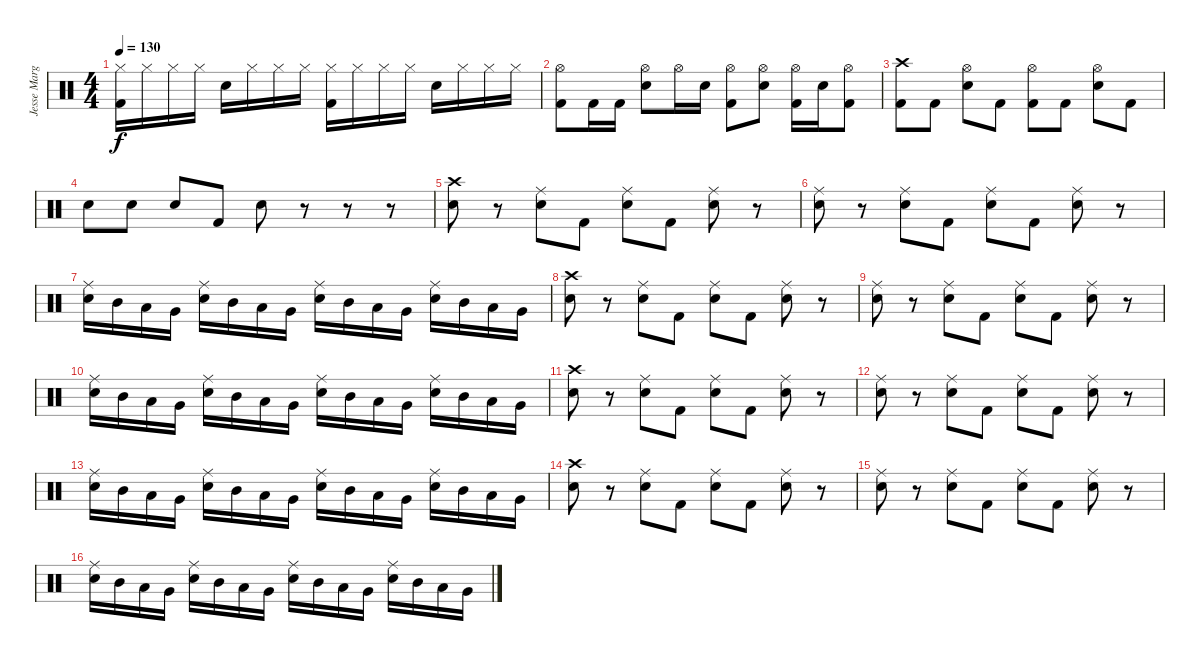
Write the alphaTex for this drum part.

\track ("Jesse Margera" "Jesse Marg") {instrument percussion}
\staff {score}
\articulation defaults
\ts (4 4)
\tempo 130
\clef neutral
\ks c
("Hi-Hat (closed)" "Kick (hit) 2").16{dy f} "Hi-Hat (closed)".16 "Hi-Hat (closed)".16 "Hi-Hat (closed)".16 "Electric Snare (hit)".16 "Hi-Hat (closed)".16 "Hi-Hat (closed)".16 "Hi-Hat (closed)".16 ("Hi-Hat (closed)" "Kick (hit) 2").16 "Hi-Hat (closed)".16 "Hi-Hat (closed)".16 "Hi-Hat (closed)".16 "Electric Snare (hit)".16 "Hi-Hat (closed)".16 "Hi-Hat (closed)".16 "Hi-Hat (closed)".16 |
("Hi-Hat (open)" "Kick (hit) 2").8 "Kick (hit) 2".16 "Kick (hit) 2".16 ("Hi-Hat (open)" "Electric Snare (hit)").8 "Hi-Hat (open)".16 "Electric Snare (hit)".16 ("Hi-Hat (open)" "Kick (hit) 2").8 ("Hi-Hat (open)" "Electric Snare (hit)").8 ("Hi-Hat (open)" "Kick (hit) 2").16 "Electric Snare (hit)".16 ("Hi-Hat (open)" "Kick (hit) 2").8 |
("Crash high (hit)" "Kick (hit) 2").8 "Kick (hit) 2".8 ("Hi-Hat (open)" "Electric Snare (hit)").8 "Kick (hit) 2".8 ("Hi-Hat (open)" "Kick (hit) 2").8 "Kick (hit) 2".8 ("Hi-Hat (open)" "Electric Snare (hit)").8 "Kick (hit) 2".8 |
"Electric Snare (hit)".8 "Electric Snare (hit)".8 "Electric Snare (hit)".8 "Kick (hit) 2".8 "Electric Snare (hit)".8 r.8 r.8 r.8 |
("Crash high (hit)" "Electric Snare (hit)").8 r.8 ("Ride (middle)" "Electric Snare (hit)").8 "Kick (hit) 2".8 ("Ride (middle)" "Electric Snare (hit)").8 "Kick (hit) 2".8 ("Ride (middle)" "Electric Snare (hit)").8 r.8 |
("Ride (middle)" "Electric Snare (hit)").8 r.8 ("Ride (middle)" "Electric Snare (hit)").8 "Kick (hit) 2".8 ("Ride (middle)" "Electric Snare (hit)").8 "Kick (hit) 2".8 ("Ride (middle)" "Electric Snare (hit)").8 r.8 |
("Ride (middle)" "Electric Snare (hit)").16 "Mid Tom (hit)".16 "Low Tom (hit)".16 "Very Low Tom (hit)".16 ("Ride (middle)" "Electric Snare (hit)").16 "Mid Tom (hit)".16 "Low Tom (hit)".16 "Very Low Tom (hit)".16 ("Ride (middle)" "Electric Snare (hit)").16 "Mid Tom (hit)".16 "Low Tom (hit)".16 "Very Low Tom (hit)".16 ("Ride (middle)" "Electric Snare (hit)").16 "Mid Tom (hit)".16 "Low Tom (hit)".16 "Very Low Tom (hit)".16 |
("Crash high (hit)" "Electric Snare (hit)").8 r.8 ("Ride (middle)" "Electric Snare (hit)").8 "Kick (hit) 2".8 ("Ride (middle)" "Electric Snare (hit)").8 "Kick (hit) 2".8 ("Ride (middle)" "Electric Snare (hit)").8 r.8 |
("Ride (middle)" "Electric Snare (hit)").8 r.8 ("Ride (middle)" "Electric Snare (hit)").8 "Kick (hit) 2".8 ("Ride (middle)" "Electric Snare (hit)").8 "Kick (hit) 2".8 ("Ride (middle)" "Electric Snare (hit)").8 r.8 |
("Ride (middle)" "Electric Snare (hit)").16 "Mid Tom (hit)".16 "Low Tom (hit)".16 "Very Low Tom (hit)".16 ("Ride (middle)" "Electric Snare (hit)").16 "Mid Tom (hit)".16 "Low Tom (hit)".16 "Very Low Tom (hit)".16 ("Ride (middle)" "Electric Snare (hit)").16 "Mid Tom (hit)".16 "Low Tom (hit)".16 "Very Low Tom (hit)".16 ("Ride (middle)" "Electric Snare (hit)").16 "Mid Tom (hit)".16 "Low Tom (hit)".16 "Very Low Tom (hit)".16 |
("Crash high (hit)" "Electric Snare (hit)").8 r.8 ("Ride (middle)" "Electric Snare (hit)").8 "Kick (hit) 2".8 ("Ride (middle)" "Electric Snare (hit)").8 "Kick (hit) 2".8 ("Ride (middle)" "Electric Snare (hit)").8 r.8 |
("Ride (middle)" "Electric Snare (hit)").8 r.8 ("Ride (middle)" "Electric Snare (hit)").8 "Kick (hit) 2".8 ("Ride (middle)" "Electric Snare (hit)").8 "Kick (hit) 2".8 ("Ride (middle)" "Electric Snare (hit)").8 r.8 |
("Ride (middle)" "Electric Snare (hit)").16 "Mid Tom (hit)".16 "Low Tom (hit)".16 "Very Low Tom (hit)".16 ("Ride (middle)" "Electric Snare (hit)").16 "Mid Tom (hit)".16 "Low Tom (hit)".16 "Very Low Tom (hit)".16 ("Ride (middle)" "Electric Snare (hit)").16 "Mid Tom (hit)".16 "Low Tom (hit)".16 "Very Low Tom (hit)".16 ("Ride (middle)" "Electric Snare (hit)").16 "Mid Tom (hit)".16 "Low Tom (hit)".16 "Very Low Tom (hit)".16 |
("Crash high (hit)" "Electric Snare (hit)").8 r.8 ("Ride (middle)" "Electric Snare (hit)").8 "Kick (hit) 2".8 ("Ride (middle)" "Electric Snare (hit)").8 "Kick (hit) 2".8 ("Ride (middle)" "Electric Snare (hit)").8 r.8 |
("Ride (middle)" "Electric Snare (hit)").8 r.8 ("Ride (middle)" "Electric Snare (hit)").8 "Kick (hit) 2".8 ("Ride (middle)" "Electric Snare (hit)").8 "Kick (hit) 2".8 ("Ride (middle)" "Electric Snare (hit)").8 r.8 |
("Ride (middle)" "Electric Snare (hit)").16 "Mid Tom (hit)".16 "Low Tom (hit)".16 "Very Low Tom (hit)".16 ("Ride (middle)" "Electric Snare (hit)").16 "Mid Tom (hit)".16 "Low Tom (hit)".16 "Very Low Tom (hit)".16 ("Ride (middle)" "Electric Snare (hit)").16 "Mid Tom (hit)".16 "Low Tom (hit)".16 "Very Low Tom (hit)".16 ("Ride (middle)" "Electric Snare (hit)").16 "Mid Tom (hit)".16 "Low Tom (hit)".16 "Very Low Tom (hit)".16
